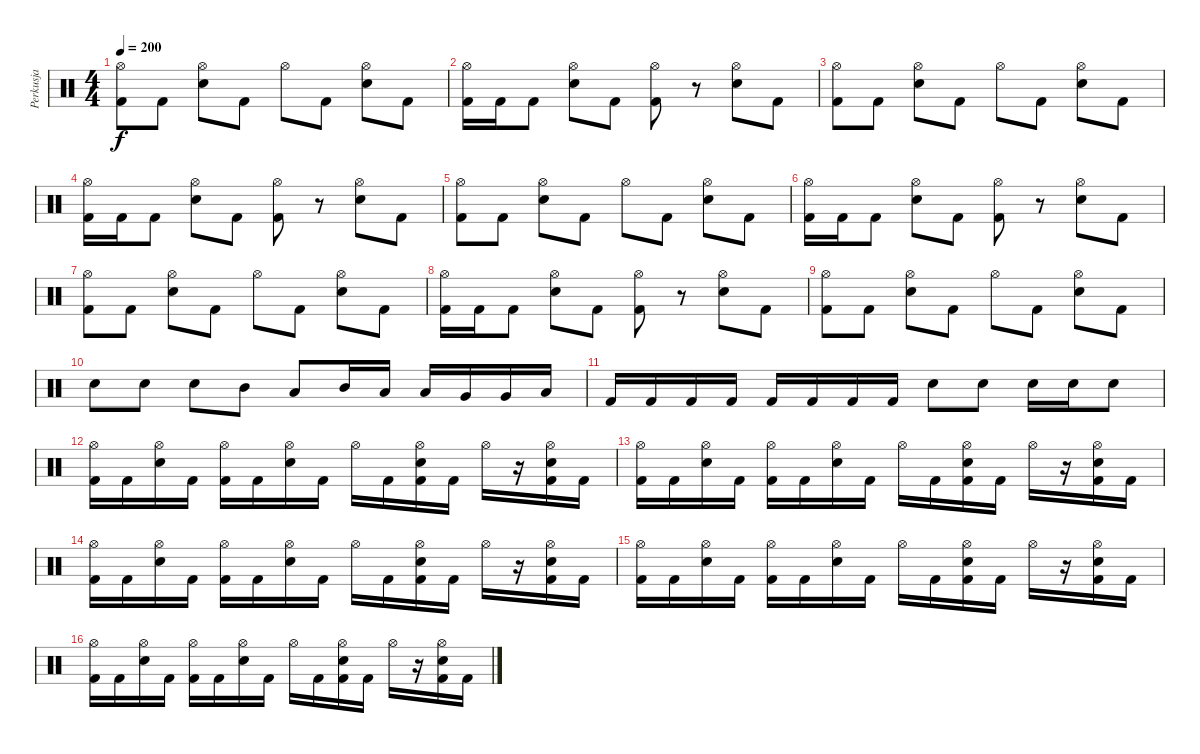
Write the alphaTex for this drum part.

\track ("Perkusja" "Perkusja") {instrument percussion}
\staff {score}
\articulation defaults
\ts (4 4)
\tempo 200
\clef neutral
\ks c
("Hi-Hat (open)" "Kick (hit) 2").8{dy f} "Kick (hit) 2".8 ("Hi-Hat (open)" "Snare (hit) 2").8 "Kick (hit) 2".8 "Hi-Hat (open)".8 "Kick (hit) 2".8 ("Hi-Hat (open)" "Snare (hit) 2").8 "Kick (hit) 2".8 |
("Hi-Hat (open)" "Kick (hit) 2").16 "Kick (hit) 2".16 "Kick (hit) 2".8 ("Hi-Hat (open)" "Snare (hit) 2").8 "Kick (hit) 2".8 ("Hi-Hat (open)" "Kick (hit) 2").8 r.8 ("Hi-Hat (open)" "Snare (hit) 2").8 "Kick (hit) 2".8 |
("Hi-Hat (open)" "Kick (hit) 2").8 "Kick (hit) 2".8 ("Hi-Hat (open)" "Snare (hit) 2").8 "Kick (hit) 2".8 "Hi-Hat (open)".8 "Kick (hit) 2".8 ("Hi-Hat (open)" "Snare (hit) 2").8 "Kick (hit) 2".8 |
("Hi-Hat (open)" "Kick (hit) 2").16 "Kick (hit) 2".16 "Kick (hit) 2".8 ("Hi-Hat (open)" "Snare (hit) 2").8 "Kick (hit) 2".8 ("Hi-Hat (open)" "Kick (hit) 2").8 r.8 ("Hi-Hat (open)" "Snare (hit) 2").8 "Kick (hit) 2".8 |
("Hi-Hat (open)" "Kick (hit) 2").8 "Kick (hit) 2".8 ("Hi-Hat (open)" "Snare (hit) 2").8 "Kick (hit) 2".8 "Hi-Hat (open)".8 "Kick (hit) 2".8 ("Hi-Hat (open)" "Snare (hit) 2").8 "Kick (hit) 2".8 |
("Hi-Hat (open)" "Kick (hit) 2").16 "Kick (hit) 2".16 "Kick (hit) 2".8 ("Hi-Hat (open)" "Snare (hit) 2").8 "Kick (hit) 2".8 ("Hi-Hat (open)" "Kick (hit) 2").8 r.8 ("Hi-Hat (open)" "Snare (hit) 2").8 "Kick (hit) 2".8 |
("Hi-Hat (open)" "Kick (hit) 2").8 "Kick (hit) 2".8 ("Hi-Hat (open)" "Snare (hit) 2").8 "Kick (hit) 2".8 "Hi-Hat (open)".8 "Kick (hit) 2".8 ("Hi-Hat (open)" "Snare (hit) 2").8 "Kick (hit) 2".8 |
("Hi-Hat (open)" "Kick (hit) 2").16 "Kick (hit) 2".16 "Kick (hit) 2".8 ("Hi-Hat (open)" "Snare (hit) 2").8 "Kick (hit) 2".8 ("Hi-Hat (open)" "Kick (hit) 2").8 r.8 ("Hi-Hat (open)" "Snare (hit) 2").8 "Kick (hit) 2".8 |
("Hi-Hat (open)" "Kick (hit) 2").8 "Kick (hit) 2".8 ("Hi-Hat (open)" "Snare (hit) 2").8 "Kick (hit) 2".8 "Hi-Hat (open)".8 "Kick (hit) 2".8 ("Hi-Hat (open)" "Snare (hit) 2").8 "Kick (hit) 2".8 |
"Snare (hit) 2".8 "Snare (hit) 2".8 "Snare (hit) 2".8 "Mid Tom (hit)".8 "Low Tom (hit)".8 "Mid Tom (hit)".16 "Low Tom (hit)".16 "Low Tom (hit)".16 "Very Low Tom (hit)".16 "Very Low Tom (hit)".16 "Low Floor Tom (hit)".16 |
"Kick (hit) 2".16 "Kick (hit) 2".16 "Kick (hit) 2".16 "Kick (hit) 2".16 "Kick (hit) 2".16 "Kick (hit) 2".16 "Kick (hit) 2".16 "Kick (hit) 2".16 "Snare (hit) 2".8 "Snare (hit) 2".8 "Snare (hit) 2".16 "Snare (hit) 2".16 "Snare (hit) 2".8 |
("Hi-Hat (open)" "Kick (hit) 2").16 "Kick (hit) 2".16 ("Hi-Hat (open)" "Snare (hit) 2").16 "Kick (hit) 2".16 ("Hi-Hat (open)" "Kick (hit) 2").16 "Kick (hit) 2".16 ("Hi-Hat (open)" "Snare (hit) 2").16 "Kick (hit) 2".16 "Hi-Hat (open)".16 "Kick (hit) 2".16 ("Hi-Hat (open)" "Snare (hit) 2" "Kick (hit) 2").16 "Kick (hit) 2".16 "Hi-Hat (open)".16 r.16 ("Hi-Hat (open)" "Snare (hit) 2" "Kick (hit) 2").16 "Kick (hit) 2".16 |
("Hi-Hat (open)" "Kick (hit) 2").16 "Kick (hit) 2".16 ("Hi-Hat (open)" "Snare (hit) 2").16 "Kick (hit) 2".16 ("Hi-Hat (open)" "Kick (hit) 2").16 "Kick (hit) 2".16 ("Hi-Hat (open)" "Snare (hit) 2").16 "Kick (hit) 2".16 "Hi-Hat (open)".16 "Kick (hit) 2".16 ("Hi-Hat (open)" "Snare (hit) 2" "Kick (hit) 2").16 "Kick (hit) 2".16 "Hi-Hat (open)".16 r.16 ("Hi-Hat (open)" "Snare (hit) 2" "Kick (hit) 2").16 "Kick (hit) 2".16 |
("Hi-Hat (open)" "Kick (hit) 2").16 "Kick (hit) 2".16 ("Hi-Hat (open)" "Snare (hit) 2").16 "Kick (hit) 2".16 ("Hi-Hat (open)" "Kick (hit) 2").16 "Kick (hit) 2".16 ("Hi-Hat (open)" "Snare (hit) 2").16 "Kick (hit) 2".16 "Hi-Hat (open)".16 "Kick (hit) 2".16 ("Hi-Hat (open)" "Snare (hit) 2" "Kick (hit) 2").16 "Kick (hit) 2".16 "Hi-Hat (open)".16 r.16 ("Hi-Hat (open)" "Snare (hit) 2" "Kick (hit) 2").16 "Kick (hit) 2".16 |
("Hi-Hat (open)" "Kick (hit) 2").16 "Kick (hit) 2".16 ("Hi-Hat (open)" "Snare (hit) 2").16 "Kick (hit) 2".16 ("Hi-Hat (open)" "Kick (hit) 2").16 "Kick (hit) 2".16 ("Hi-Hat (open)" "Snare (hit) 2").16 "Kick (hit) 2".16 "Hi-Hat (open)".16 "Kick (hit) 2".16 ("Hi-Hat (open)" "Snare (hit) 2" "Kick (hit) 2").16 "Kick (hit) 2".16 "Hi-Hat (open)".16 r.16 ("Hi-Hat (open)" "Snare (hit) 2" "Kick (hit) 2").16 "Kick (hit) 2".16 |
("Hi-Hat (open)" "Kick (hit) 2").16 "Kick (hit) 2".16 ("Hi-Hat (open)" "Snare (hit) 2").16 "Kick (hit) 2".16 ("Hi-Hat (open)" "Kick (hit) 2").16 "Kick (hit) 2".16 ("Hi-Hat (open)" "Snare (hit) 2").16 "Kick (hit) 2".16 "Hi-Hat (open)".16 "Kick (hit) 2".16 ("Hi-Hat (open)" "Snare (hit) 2" "Kick (hit) 2").16 "Kick (hit) 2".16 "Hi-Hat (open)".16 r.16 ("Hi-Hat (open)" "Snare (hit) 2" "Kick (hit) 2").16 "Kick (hit) 2".16
